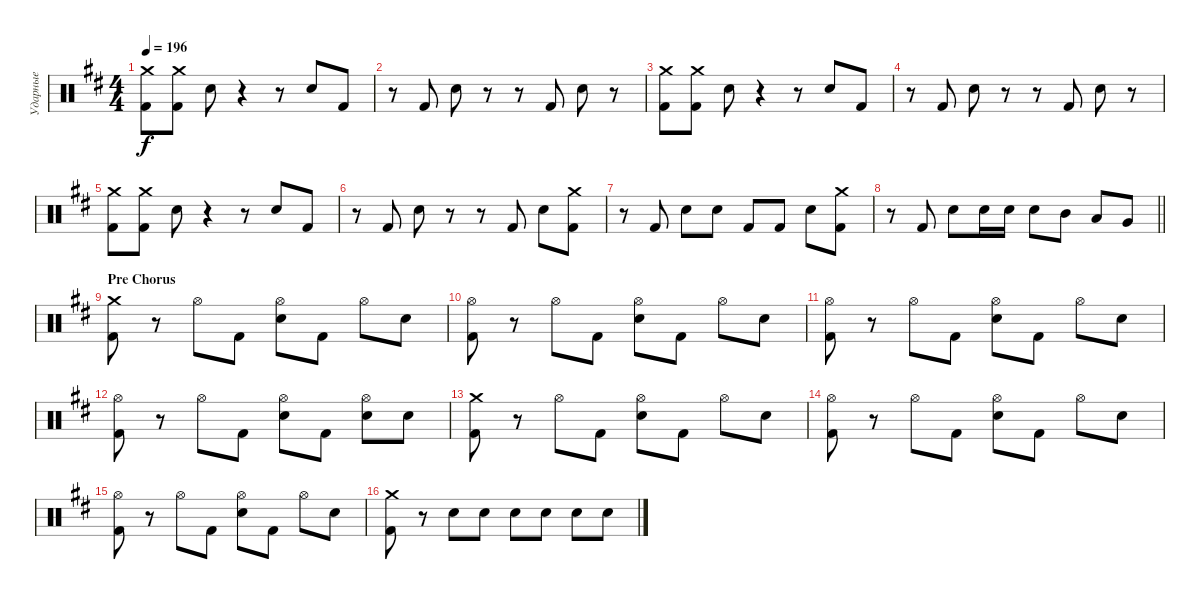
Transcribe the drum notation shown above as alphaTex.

\track ("Ударные" "Ударные") {instrument percussion}
\staff {score}
\articulation defaults
\ts (4 4)
\tempo 196
\clef neutral
\ks d
("Crash medium (hit)" "Kick (hit) 2").8{dy f} ("Crash medium (hit)" "Kick (hit) 2").8 "Electric Snare (hit)".8 r.4 r.8 "Electric Snare (hit)".8 "Kick (hit) 2".8 |
r.8 "Kick (hit) 2".8 "Electric Snare (hit)".8 r.8 r.8 "Kick (hit) 2".8 "Electric Snare (hit)".8 r.8 |
("Crash medium (hit)" "Kick (hit) 2").8 ("Crash medium (hit)" "Kick (hit) 2").8 "Electric Snare (hit)".8 r.4 r.8 "Electric Snare (hit)".8 "Kick (hit) 2".8 |
r.8 "Kick (hit) 2".8 "Electric Snare (hit)".8 r.8 r.8 "Kick (hit) 2".8 "Electric Snare (hit)".8 r.8 |
("Crash medium (hit)" "Kick (hit) 2").8 ("Crash medium (hit)" "Kick (hit) 2").8 "Electric Snare (hit)".8 r.4 r.8 "Electric Snare (hit)".8 "Kick (hit) 2".8 |
r.8 "Kick (hit) 2".8 "Electric Snare (hit)".8 r.8 r.8 "Kick (hit) 2".8 "Electric Snare (hit)".8 ("Crash medium (hit)" "Kick (hit) 2").8 |
r.8 "Kick (hit) 2".8 "Electric Snare (hit)".8 "Electric Snare (hit)".8 "Kick (hit) 2".8 "Kick (hit) 2".8 "Electric Snare (hit)".8 ("Crash medium (hit)" "Kick (hit) 2").8 |
\barLineRight lightlight
r.8 "Kick (hit) 2".8 "Electric Snare (hit)".8 "Electric Snare (hit)".16 "Electric Snare (hit)".16 "Electric Snare (hit)".8 "Mid Tom (hit)".8 "Low Tom (hit)".8 "Very Low Tom (hit)".8 |
\section ("" "Pre Chorus")
("Crash medium (hit)" "Kick (hit) 2").8 r.8 "Hi-Hat (open)".8 "Kick (hit) 2".8 ("Hi-Hat (open)" "Electric Snare (hit)").8 "Kick (hit) 2".8 "Hi-Hat (open)".8 "Electric Snare (hit)".8 |
("Hi-Hat (open)" "Kick (hit) 2").8 r.8 "Hi-Hat (open)".8 "Kick (hit) 2".8 ("Hi-Hat (open)" "Electric Snare (hit)").8 "Kick (hit) 2".8 "Hi-Hat (open)".8 "Electric Snare (hit)".8 |
("Hi-Hat (open)" "Kick (hit) 2").8 r.8 "Hi-Hat (open)".8 "Kick (hit) 2".8 ("Hi-Hat (open)" "Electric Snare (hit)").8 "Kick (hit) 2".8 "Hi-Hat (open)".8 "Electric Snare (hit)".8 |
("Hi-Hat (open)" "Kick (hit) 2").8 r.8 "Hi-Hat (open)".8 "Kick (hit) 2".8 ("Hi-Hat (open)" "Electric Snare (hit)").8 "Kick (hit) 2".8 ("Hi-Hat (open)" "Electric Snare (hit)").8 "Electric Snare (hit)".8 |
("Crash medium (hit)" "Kick (hit) 2").8 r.8 "Hi-Hat (open)".8 "Kick (hit) 2".8 ("Hi-Hat (open)" "Electric Snare (hit)").8 "Kick (hit) 2".8 "Hi-Hat (open)".8 "Electric Snare (hit)".8 |
("Hi-Hat (open)" "Kick (hit) 2").8 r.8 "Hi-Hat (open)".8 "Kick (hit) 2".8 ("Hi-Hat (open)" "Electric Snare (hit)").8 "Kick (hit) 2".8 "Hi-Hat (open)".8 "Electric Snare (hit)".8 |
("Hi-Hat (open)" "Kick (hit) 2").8 r.8 "Hi-Hat (open)".8 "Kick (hit) 2".8 ("Hi-Hat (open)" "Electric Snare (hit)").8 "Kick (hit) 2".8 "Hi-Hat (open)".8 "Electric Snare (hit)".8 |
("Crash medium (hit)" "Kick (hit) 2").8 r.8 "Electric Snare (hit)".8 "Electric Snare (hit)".8 "Electric Snare (hit)".8 "Electric Snare (hit)".8 "Electric Snare (hit)".8 "Electric Snare (hit)".8
